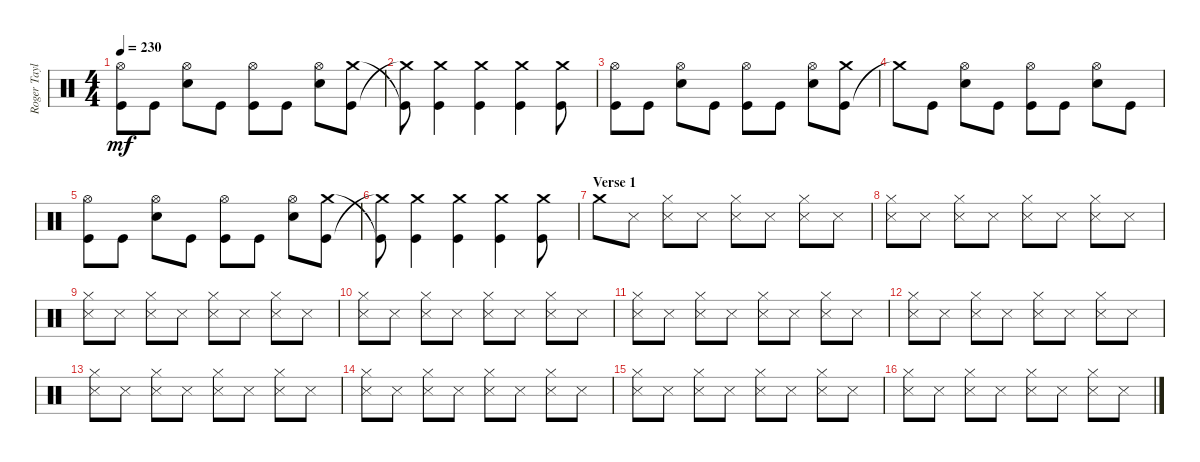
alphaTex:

\track ("Roger Taylor" "Roger Tayl") {instrument percussion}
\staff {score}
\articulation defaults
\ts (4 4)
\tempo 230
\clef neutral
\ks c
("Hi-Hat (open)" "Kick (hit)").8{dy mf} "Kick (hit)".8 ("Snare (hit) 2" "Hi-Hat (open)").8 "Kick (hit)".8 ("Kick (hit)" "Hi-Hat (open)").8 "Kick (hit)".8 ("Snare (hit) 2" "Hi-Hat (open)").8 ("Kick (hit)" "Crash medium (hit)").8 |
("Crash medium (hit)"{t} "Kick (hit)"{t}).8 ("Crash medium (hit)" "Kick (hit)").4 ("Crash medium (hit)" "Kick (hit)").4 ("Crash medium (hit)" "Kick (hit)").4 ("Crash medium (hit)" "Kick (hit)").8 |
("Hi-Hat (open)" "Kick (hit)").8 "Kick (hit)".8 ("Hi-Hat (open)" "Snare (hit) 2").8 "Kick (hit)".8 ("Kick (hit)" "Hi-Hat (open)").8 "Kick (hit)".8 ("Hi-Hat (open)" "Snare (hit) 2").8 ("Kick (hit)" "Crash medium (hit)").8 |
"Crash medium (hit)"{t}.8 "Kick (hit)".8 ("Snare (hit) 2" "Hi-Hat (open)").8 "Kick (hit)".8 ("Kick (hit)" "Hi-Hat (open)").8 "Kick (hit)".8 ("Snare (hit) 2" "Hi-Hat (open)").8 "Kick (hit)".8 |
("Hi-Hat (open)" "Kick (hit)").8 "Kick (hit)".8 ("Snare (hit) 2" "Hi-Hat (open)").8 "Kick (hit)".8 ("Kick (hit)" "Hi-Hat (open)").8 "Kick (hit)".8 ("Snare (hit) 2" "Hi-Hat (open)").8 ("Kick (hit)" "Crash medium (hit)").8 |
("Crash medium (hit)"{t} "Kick (hit)"{t}).8 ("Crash medium (hit)" "Kick (hit)").4 ("Crash medium (hit)" "Kick (hit)").4 ("Crash medium (hit)" "Kick (hit)").4 ("Crash medium (hit)" "Kick (hit)").8 |
\section ("" "Verse 1")
"Crash medium (hit)".8 "Snare (side stick) 3".8 ("Snare (side stick) 3" "Hi-Hat (closed)").8 "Snare (side stick) 3".8 ("Snare (side stick) 3" "Hi-Hat (closed)").8 "Snare (side stick) 3".8 ("Snare (side stick) 3" "Hi-Hat (closed)").8 "Snare (side stick) 3".8 |
("Snare (side stick) 3" "Hi-Hat (closed)").8 "Snare (side stick) 3".8 ("Snare (side stick) 3" "Hi-Hat (closed)").8 "Snare (side stick) 3".8 ("Snare (side stick) 3" "Hi-Hat (closed)").8 "Snare (side stick) 3".8 ("Snare (side stick) 3" "Hi-Hat (closed)").8 "Snare (side stick) 3".8 |
("Snare (side stick) 3" "Hi-Hat (closed)").8 "Snare (side stick) 3".8 ("Snare (side stick) 3" "Hi-Hat (closed)").8 "Snare (side stick) 3".8 ("Snare (side stick) 3" "Hi-Hat (closed)").8 "Snare (side stick) 3".8 ("Snare (side stick) 3" "Hi-Hat (closed)").8 "Snare (side stick) 3".8 |
("Snare (side stick) 3" "Hi-Hat (closed)").8 "Snare (side stick) 3".8 ("Snare (side stick) 3" "Hi-Hat (closed)").8 "Snare (side stick) 3".8 ("Snare (side stick) 3" "Hi-Hat (closed)").8 "Snare (side stick) 3".8 ("Snare (side stick) 3" "Hi-Hat (closed)").8 "Snare (side stick) 3".8 |
("Snare (side stick) 3" "Hi-Hat (closed)").8 "Snare (side stick) 3".8 ("Snare (side stick) 3" "Hi-Hat (closed)").8 "Snare (side stick) 3".8 ("Snare (side stick) 3" "Hi-Hat (closed)").8 "Snare (side stick) 3".8 ("Snare (side stick) 3" "Hi-Hat (closed)").8 "Snare (side stick) 3".8 |
("Snare (side stick) 3" "Hi-Hat (closed)").8 "Snare (side stick) 3".8 ("Snare (side stick) 3" "Hi-Hat (closed)").8 "Snare (side stick) 3".8 ("Snare (side stick) 3" "Hi-Hat (closed)").8 "Snare (side stick) 3".8 ("Snare (side stick) 3" "Hi-Hat (closed)").8 "Snare (side stick) 3".8 |
("Snare (side stick) 3" "Hi-Hat (closed)").8 "Snare (side stick) 3".8 ("Snare (side stick) 3" "Hi-Hat (closed)").8 "Snare (side stick) 3".8 ("Snare (side stick) 3" "Hi-Hat (closed)").8 "Snare (side stick) 3".8 ("Snare (side stick) 3" "Hi-Hat (closed)").8 "Snare (side stick) 3".8 |
("Snare (side stick) 3" "Hi-Hat (closed)").8 "Snare (side stick) 3".8 ("Snare (side stick) 3" "Hi-Hat (closed)").8 "Snare (side stick) 3".8 ("Snare (side stick) 3" "Hi-Hat (closed)").8 "Snare (side stick) 3".8 ("Snare (side stick) 3" "Hi-Hat (closed)").8 "Snare (side stick) 3".8 |
("Snare (side stick) 3" "Hi-Hat (closed)").8 "Snare (side stick) 3".8 ("Snare (side stick) 3" "Hi-Hat (closed)").8 "Snare (side stick) 3".8 ("Snare (side stick) 3" "Hi-Hat (closed)").8 "Snare (side stick) 3".8 ("Snare (side stick) 3" "Hi-Hat (closed)").8 "Snare (side stick) 3".8 |
("Snare (side stick) 3" "Hi-Hat (closed)").8 "Snare (side stick) 3".8 ("Snare (side stick) 3" "Hi-Hat (closed)").8 "Snare (side stick) 3".8 ("Snare (side stick) 3" "Hi-Hat (closed)").8 "Snare (side stick) 3".8 ("Snare (side stick) 3" "Hi-Hat (closed)").8 "Snare (side stick) 3".8
